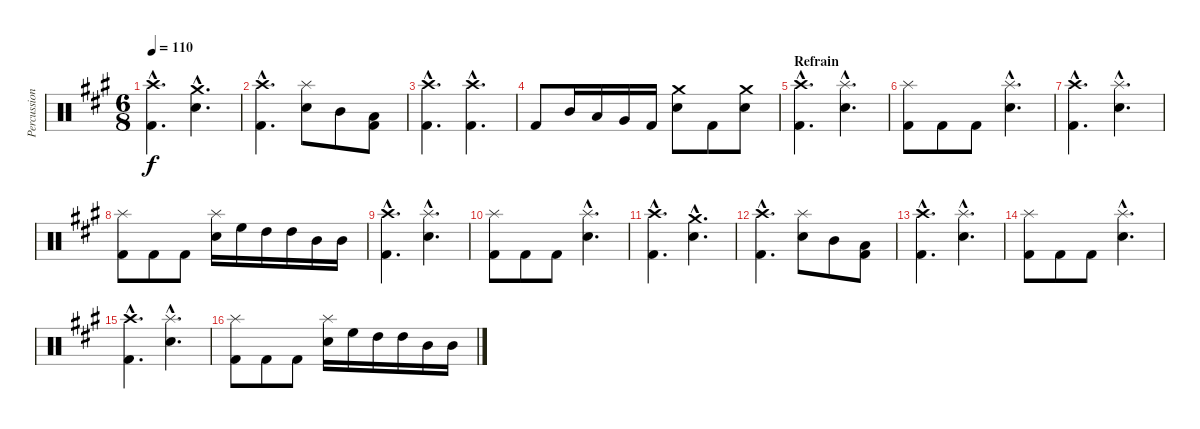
\track ("Percussions" "Percussion") {instrument percussion}
\staff {score}
\articulation defaults
\ts (6 8)
\tempo 110
\clef neutral
\ks a
("Crash high (hit)"{hac} "Kick (hit) 2"{hac}).4{d dy f} ("Crash medium (hit)"{hac} "Electric Snare (hit)"{hac}).4{d} |
("Crash high (hit)"{hac} "Kick (hit) 2"{hac}).4{d} ("Splash (hit)" "Electric Snare (hit)").8 "Mid Tom (hit)".8 ("Low Tom (hit)" "Kick (hit) 2").8 |
("Crash high (hit)"{hac} "Kick (hit) 2"{hac}).4{d} ("Crash high (hit)"{hac} "Kick (hit) 2"{hac}).4{d} |
"Kick (hit) 2".8 "Mid Tom (hit)".16 "Low Tom (hit)".16 "Very Low Tom (hit)".16 "Kick (hit) 2".16 ("Crash medium (hit)" "Electric Snare (hit)").8 "Kick (hit) 2".8 ("Crash medium (hit)" "Electric Snare (hit)").8 |
\section ("" "Refrain")
("Crash high (hit)"{hac} "Kick (hit) 2"{hac}).4{d} ("Splash (hit)"{hac} "Electric Snare (hit)"{hac}).4{d} |
("Splash (hit)" "Kick (hit) 2").8 "Kick (hit) 2".8 "Kick (hit) 2".8 ("Splash (hit)"{hac} "Electric Snare (hit)"{hac}).4{d} |
("Crash high (hit)"{hac} "Kick (hit) 2"{hac}).4{d} ("Splash (hit)"{hac} "Electric Snare (hit)"{hac}).4{d} |
("Splash (hit)" "Kick (hit) 2").8 "Kick (hit) 2".8 "Kick (hit) 2".8 ("Splash (hit)" "Electric Snare (hit)").16 "High Floor Tom (hit)".16 "High Tom (hit)".16 "High Tom (hit)".16 "Mid Tom (hit)".16 "Mid Tom (hit)".16 |
("Crash high (hit)"{hac} "Kick (hit) 2"{hac}).4{d} ("Splash (hit)"{hac} "Electric Snare (hit)"{hac}).4{d} |
("Splash (hit)" "Kick (hit) 2").8 "Kick (hit) 2".8 "Kick (hit) 2".8 ("Splash (hit)"{hac} "Electric Snare (hit)"{hac}).4{d} |
("Crash high (hit)"{hac} "Kick (hit) 2"{hac}).4{d} ("Crash medium (hit)"{hac} "Electric Snare (hit)"{hac}).4{d} |
("Crash high (hit)"{hac} "Kick (hit) 2"{hac}).4{d} ("Splash (hit)" "Electric Snare (hit)").8 "Mid Tom (hit)".8 ("Low Tom (hit)" "Kick (hit) 2").8 |
("Crash high (hit)"{hac} "Kick (hit) 2"{hac}).4{d} ("Splash (hit)"{hac} "Electric Snare (hit)"{hac}).4{d} |
("Splash (hit)" "Kick (hit) 2").8 "Kick (hit) 2".8 "Kick (hit) 2".8 ("Splash (hit)"{hac} "Electric Snare (hit)"{hac}).4{d} |
("Crash high (hit)"{hac} "Kick (hit) 2"{hac}).4{d} ("Splash (hit)"{hac} "Electric Snare (hit)"{hac}).4{d} |
("Splash (hit)" "Kick (hit) 2").8 "Kick (hit) 2".8 "Kick (hit) 2".8 ("Splash (hit)" "Electric Snare (hit)").16 "High Floor Tom (hit)".16 "High Tom (hit)".16 "High Tom (hit)".16 "Mid Tom (hit)".16 "Mid Tom (hit)".16
